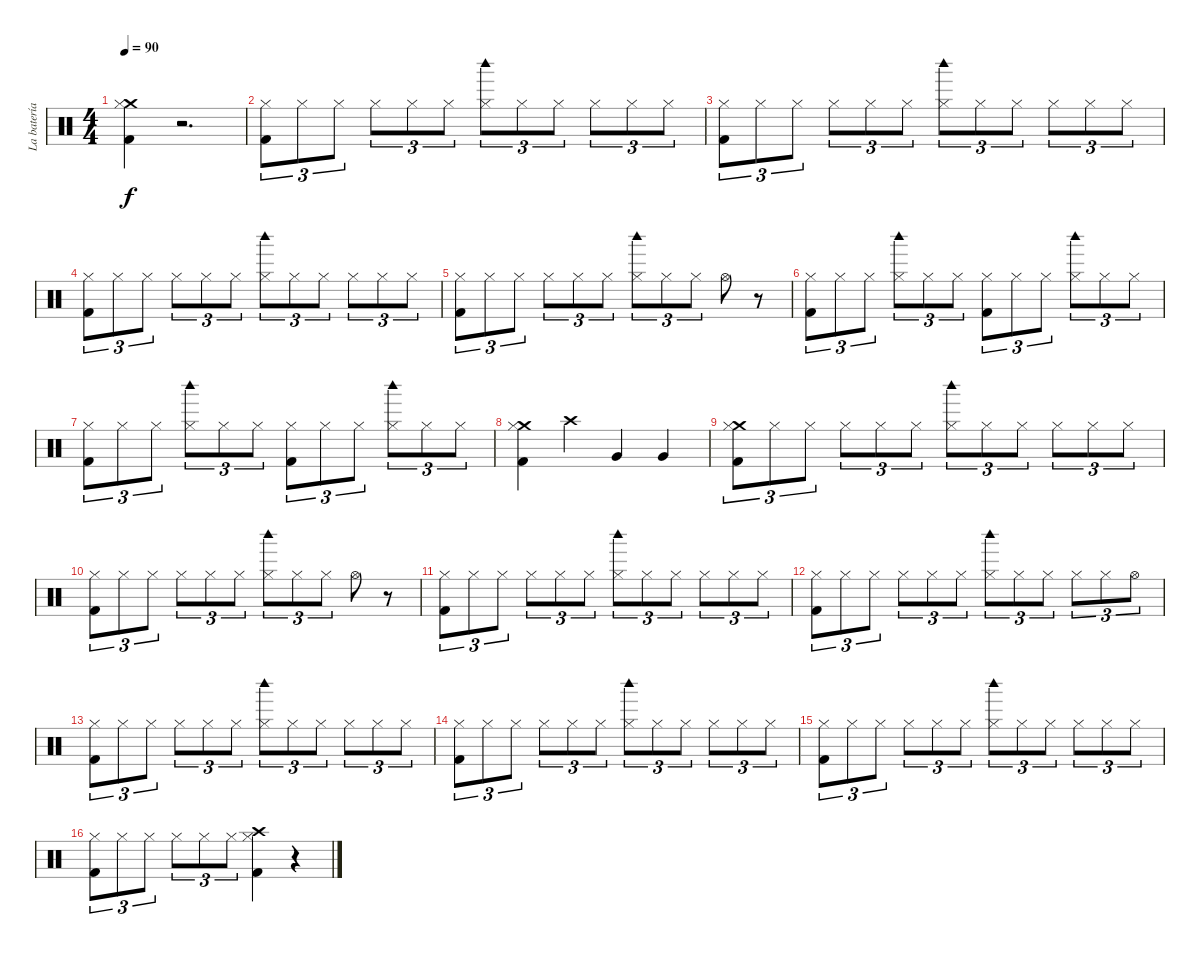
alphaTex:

\track ("La batería (con dos huevos xD)" "La batería") {instrument percussion}
\staff {score}
\articulation defaults
\ts (4 4)
\tempo 90
\clef neutral
\ks c
("Crash medium (hit)" "Hi-Hat (closed)" "Kick (hit) 2").4{dy f} r.2{d} |
("Hi-Hat (closed)" "Kick (hit) 2").8{tu (3 2)} "Hi-Hat (closed)".8{tu (3 2)} "Hi-Hat (closed)".8{tu (3 2)} "Hi-Hat (closed)".8{tu (3 2)} "Hi-Hat (closed)".8{tu (3 2)} "Hi-Hat (closed)".8{tu (3 2)} ("Hi-Hat (closed)" "Woodblock high (hit)").8{tu (3 2)} "Hi-Hat (closed)".8{tu (3 2)} "Hi-Hat (closed)".8{tu (3 2)} "Hi-Hat (closed)".8{tu (3 2)} "Hi-Hat (closed)".8{tu (3 2)} "Hi-Hat (closed)".8{tu (3 2)} |
("Hi-Hat (closed)" "Kick (hit) 2").8{tu (3 2)} "Hi-Hat (closed)".8{tu (3 2)} "Hi-Hat (closed)".8{tu (3 2)} "Hi-Hat (closed)".8{tu (3 2)} "Hi-Hat (closed)".8{tu (3 2)} "Hi-Hat (closed)".8{tu (3 2)} ("Hi-Hat (closed)" "Woodblock high (hit)").8{tu (3 2)} "Hi-Hat (closed)".8{tu (3 2)} "Hi-Hat (closed)".8{tu (3 2)} "Hi-Hat (closed)".8{tu (3 2)} "Hi-Hat (closed)".8{tu (3 2)} "Hi-Hat (closed)".8{tu (3 2)} |
("Hi-Hat (closed)" "Kick (hit) 2").8{tu (3 2)} "Hi-Hat (closed)".8{tu (3 2)} "Hi-Hat (closed)".8{tu (3 2)} "Hi-Hat (closed)".8{tu (3 2)} "Hi-Hat (closed)".8{tu (3 2)} "Hi-Hat (closed)".8{tu (3 2)} ("Hi-Hat (closed)" "Woodblock high (hit)").8{tu (3 2)} "Hi-Hat (closed)".8{tu (3 2)} "Hi-Hat (closed)".8{tu (3 2)} "Hi-Hat (closed)".8{tu (3 2)} "Hi-Hat (closed)".8{tu (3 2)} "Hi-Hat (closed)".8{tu (3 2)} |
("Hi-Hat (closed)" "Kick (hit) 2").8{tu (3 2)} "Hi-Hat (closed)".8{tu (3 2)} "Hi-Hat (closed)".8{tu (3 2)} "Hi-Hat (closed)".8{tu (3 2)} "Hi-Hat (closed)".8{tu (3 2)} "Hi-Hat (closed)".8{tu (3 2)} ("Hi-Hat (closed)" "Woodblock high (hit)").8{tu (3 2)} "Hi-Hat (closed)".8{tu (3 2)} "Hi-Hat (closed)".8{tu (3 2)} "Hi-Hat (open)".8 r.8 |
("Hi-Hat (closed)" "Kick (hit) 2").8{tu (3 2)} "Hi-Hat (closed)".8{tu (3 2)} "Hi-Hat (closed)".8{tu (3 2)} ("Hi-Hat (closed)" "Woodblock high (hit)").8{tu (3 2)} "Hi-Hat (closed)".8{tu (3 2)} "Hi-Hat (closed)".8{tu (3 2)} ("Hi-Hat (closed)" "Kick (hit) 2").8{tu (3 2)} "Hi-Hat (closed)".8{tu (3 2)} "Hi-Hat (closed)".8{tu (3 2)} ("Hi-Hat (closed)" "Woodblock high (hit)").8{tu (3 2)} "Hi-Hat (closed)".8{tu (3 2)} "Hi-Hat (closed)".8{tu (3 2)} |
("Hi-Hat (closed)" "Kick (hit) 2").8{tu (3 2)} "Hi-Hat (closed)".8{tu (3 2)} "Hi-Hat (closed)".8{tu (3 2)} ("Hi-Hat (closed)" "Woodblock high (hit)").8{tu (3 2)} "Hi-Hat (closed)".8{tu (3 2)} "Hi-Hat (closed)".8{tu (3 2)} ("Hi-Hat (closed)" "Kick (hit) 2").8{tu (3 2)} "Hi-Hat (closed)".8{tu (3 2)} "Hi-Hat (closed)".8{tu (3 2)} ("Hi-Hat (closed)" "Woodblock high (hit)").8{tu (3 2)} "Hi-Hat (closed)".8{tu (3 2)} "Hi-Hat (closed)".8{tu (3 2)} |
("Crash medium (hit)" "Hi-Hat (closed)" "Kick (hit) 2").4 "Crash high (hit)".4 "Very Low Tom (hit)".4 "Very Low Tom (hit)".4 |
("Crash medium (hit)" "Hi-Hat (closed)" "Kick (hit) 2").8{tu (3 2)} "Hi-Hat (closed)".8{tu (3 2)} "Hi-Hat (closed)".8{tu (3 2)} "Hi-Hat (closed)".8{tu (3 2)} "Hi-Hat (closed)".8{tu (3 2)} "Hi-Hat (closed)".8{tu (3 2)} ("Hi-Hat (closed)" "Woodblock high (hit)").8{tu (3 2)} "Hi-Hat (closed)".8{tu (3 2)} "Hi-Hat (closed)".8{tu (3 2)} "Hi-Hat (closed)".8{tu (3 2)} "Hi-Hat (closed)".8{tu (3 2)} "Hi-Hat (closed)".8{tu (3 2)} |
("Hi-Hat (closed)" "Kick (hit) 2").8{tu (3 2)} "Hi-Hat (closed)".8{tu (3 2)} "Hi-Hat (closed)".8{tu (3 2)} "Hi-Hat (closed)".8{tu (3 2)} "Hi-Hat (closed)".8{tu (3 2)} "Hi-Hat (closed)".8{tu (3 2)} ("Hi-Hat (closed)" "Woodblock high (hit)").8{tu (3 2)} "Hi-Hat (closed)".8{tu (3 2)} "Hi-Hat (closed)".8{tu (3 2)} "Hi-Hat (open)".8 r.8 |
("Hi-Hat (closed)" "Kick (hit) 2").8{tu (3 2)} "Hi-Hat (closed)".8{tu (3 2)} "Hi-Hat (closed)".8{tu (3 2)} "Hi-Hat (closed)".8{tu (3 2)} "Hi-Hat (closed)".8{tu (3 2)} "Hi-Hat (closed)".8{tu (3 2)} ("Hi-Hat (closed)" "Woodblock high (hit)").8{tu (3 2)} "Hi-Hat (closed)".8{tu (3 2)} "Hi-Hat (closed)".8{tu (3 2)} "Hi-Hat (closed)".8{tu (3 2)} "Hi-Hat (closed)".8{tu (3 2)} "Hi-Hat (closed)".8{tu (3 2)} |
("Hi-Hat (closed)" "Kick (hit) 2").8{tu (3 2)} "Hi-Hat (closed)".8{tu (3 2)} "Hi-Hat (closed)".8{tu (3 2)} "Hi-Hat (closed)".8{tu (3 2)} "Hi-Hat (closed)".8{tu (3 2)} "Hi-Hat (closed)".8{tu (3 2)} ("Hi-Hat (closed)" "Woodblock high (hit)").8{tu (3 2)} "Hi-Hat (closed)".8{tu (3 2)} "Hi-Hat (closed)".8{tu (3 2)} "Hi-Hat (closed)".8{tu (3 2)} "Hi-Hat (closed)".8{tu (3 2)} "Hi-Hat (open)".8{tu (3 2)} |
("Hi-Hat (closed)" "Kick (hit) 2").8{tu (3 2)} "Hi-Hat (closed)".8{tu (3 2)} "Hi-Hat (closed)".8{tu (3 2)} "Hi-Hat (closed)".8{tu (3 2)} "Hi-Hat (closed)".8{tu (3 2)} "Hi-Hat (closed)".8{tu (3 2)} ("Hi-Hat (closed)" "Woodblock high (hit)").8{tu (3 2)} "Hi-Hat (closed)".8{tu (3 2)} "Hi-Hat (closed)".8{tu (3 2)} "Hi-Hat (closed)".8{tu (3 2)} "Hi-Hat (closed)".8{tu (3 2)} "Hi-Hat (closed)".8{tu (3 2)} |
("Hi-Hat (closed)" "Kick (hit) 2").8{tu (3 2)} "Hi-Hat (closed)".8{tu (3 2)} "Hi-Hat (closed)".8{tu (3 2)} "Hi-Hat (closed)".8{tu (3 2)} "Hi-Hat (closed)".8{tu (3 2)} "Hi-Hat (closed)".8{tu (3 2)} ("Hi-Hat (closed)" "Woodblock high (hit)").8{tu (3 2)} "Hi-Hat (closed)".8{tu (3 2)} "Hi-Hat (closed)".8{tu (3 2)} "Hi-Hat (closed)".8{tu (3 2)} "Hi-Hat (closed)".8{tu (3 2)} "Hi-Hat (closed)".8{tu (3 2)} |
("Hi-Hat (closed)" "Kick (hit) 2").8{tu (3 2)} "Hi-Hat (closed)".8{tu (3 2)} "Hi-Hat (closed)".8{tu (3 2)} "Hi-Hat (closed)".8{tu (3 2)} "Hi-Hat (closed)".8{tu (3 2)} "Hi-Hat (closed)".8{tu (3 2)} ("Hi-Hat (closed)" "Woodblock high (hit)").8{tu (3 2)} "Hi-Hat (closed)".8{tu (3 2)} "Hi-Hat (closed)".8{tu (3 2)} "Hi-Hat (closed)".8{tu (3 2)} "Hi-Hat (closed)".8{tu (3 2)} "Hi-Hat (closed)".8{tu (3 2)} |
("Hi-Hat (closed)" "Kick (hit) 2").8{tu (3 2)} "Hi-Hat (closed)".8{tu (3 2)} "Hi-Hat (closed)".8{tu (3 2)} "Hi-Hat (closed)".8{tu (3 2)} "Hi-Hat (closed)".8{tu (3 2)} "Hi-Hat (closed)".8{tu (3 2)} ("Crash high (hit)" "Hi-Hat (closed)" "Kick (hit) 2").4 r.4
